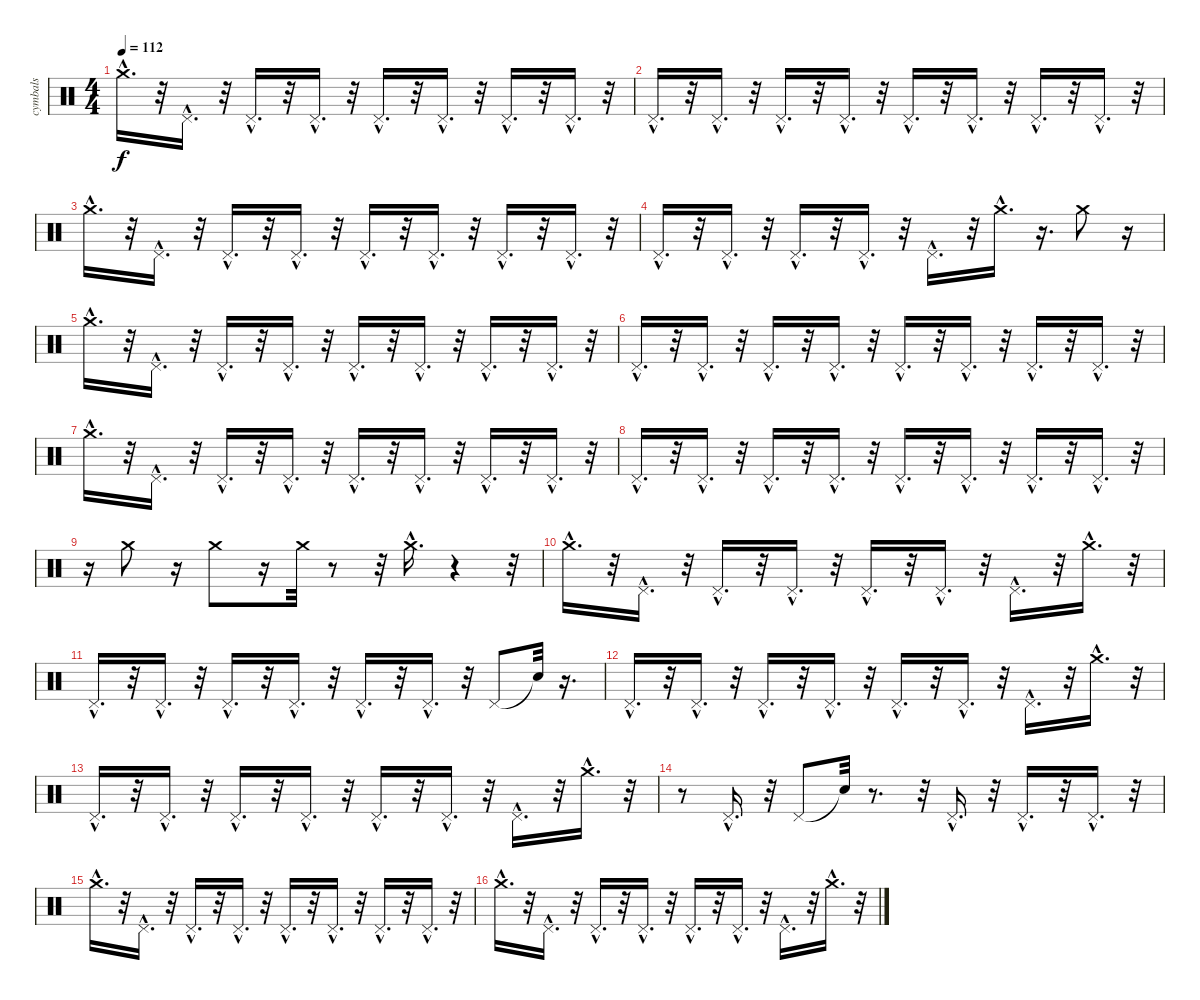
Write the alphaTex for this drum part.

\track ("cymbals" "cymbals") {instrument percussion}
\staff {score}
\articulation defaults
\ts (4 4)
\tempo 112
\clef neutral
\ks c "Crash medium (hit)"{hac}.16{d dy f}
r.32 "Pedal Hi-Hat (hit)"{hac}.16{d} r.32 "Pedal Hi-Hat (hit)"{hac}.16{d} r.32 "Pedal Hi-Hat (hit)"{hac}.16{d} r.32 "Pedal Hi-Hat (hit)"{hac}.16{d} r.32 "Pedal Hi-Hat (hit)"{hac}.16{d} r.32 "Pedal Hi-Hat (hit)"{hac}.16{d} r.32 "Pedal Hi-Hat (hit)"{hac}.16{d} r.32 |
"Pedal Hi-Hat (hit)"{hac}.16{d} r.32 "Pedal Hi-Hat (hit)"{hac}.16{d} r.32 "Pedal Hi-Hat (hit)"{hac}.16{d} r.32 "Pedal Hi-Hat (hit)"{hac}.16{d} r.32 "Pedal Hi-Hat (hit)"{hac}.16{d} r.32 "Pedal Hi-Hat (hit)"{hac}.16{d} r.32 "Pedal Hi-Hat (hit)"{hac}.16{d} r.32 "Pedal Hi-Hat (hit)"{hac}.16{d} r.32 |
"Crash medium (hit)"{hac}.16{d} r.32 "Pedal Hi-Hat (hit)"{hac}.16{d} r.32 "Pedal Hi-Hat (hit)"{hac}.16{d} r.32 "Pedal Hi-Hat (hit)"{hac}.16{d} r.32 "Pedal Hi-Hat (hit)"{hac}.16{d} r.32 "Pedal Hi-Hat (hit)"{hac}.16{d} r.32 "Pedal Hi-Hat (hit)"{hac}.16{d} r.32 "Pedal Hi-Hat (hit)"{hac}.16{d} r.32 |
"Pedal Hi-Hat (hit)"{hac}.16{d} r.32 "Pedal Hi-Hat (hit)"{hac}.16{d} r.32 "Pedal Hi-Hat (hit)"{hac}.16{d} r.32 "Pedal Hi-Hat (hit)"{hac}.16{d} r.32 "Pedal Hi-Hat (hit)"{hac}.16{d} r.32 "Crash medium (hit)"{hac}.16{d} r.16{d} "Crash medium (hit)".8 r.16 |
"Crash medium (hit)"{hac}.16{d} r.32 "Pedal Hi-Hat (hit)"{hac}.16{d} r.32 "Pedal Hi-Hat (hit)"{hac}.16{d} r.32 "Pedal Hi-Hat (hit)"{hac}.16{d} r.32 "Pedal Hi-Hat (hit)"{hac}.16{d} r.32 "Pedal Hi-Hat (hit)"{hac}.16{d} r.32 "Pedal Hi-Hat (hit)"{hac}.16{d} r.32 "Pedal Hi-Hat (hit)"{hac}.16{d} r.32 |
"Pedal Hi-Hat (hit)"{hac}.16{d} r.32 "Pedal Hi-Hat (hit)"{hac}.16{d} r.32 "Pedal Hi-Hat (hit)"{hac}.16{d} r.32 "Pedal Hi-Hat (hit)"{hac}.16{d} r.32 "Pedal Hi-Hat (hit)"{hac}.16{d} r.32 "Pedal Hi-Hat (hit)"{hac}.16{d} r.32 "Pedal Hi-Hat (hit)"{hac}.16{d} r.32 "Pedal Hi-Hat (hit)"{hac}.16{d} r.32 |
"Crash medium (hit)"{hac}.16{d} r.32 "Pedal Hi-Hat (hit)"{hac}.16{d} r.32 "Pedal Hi-Hat (hit)"{hac}.16{d} r.32 "Pedal Hi-Hat (hit)"{hac}.16{d} r.32 "Pedal Hi-Hat (hit)"{hac}.16{d} r.32 "Pedal Hi-Hat (hit)"{hac}.16{d} r.32 "Pedal Hi-Hat (hit)"{hac}.16{d} r.32 "Pedal Hi-Hat (hit)"{hac}.16{d} r.32 |
"Pedal Hi-Hat (hit)"{hac}.16{d} r.32 "Pedal Hi-Hat (hit)"{hac}.16{d} r.32 "Pedal Hi-Hat (hit)"{hac}.16{d} r.32 "Pedal Hi-Hat (hit)"{hac}.16{d} r.32 "Pedal Hi-Hat (hit)"{hac}.16{d} r.32 "Pedal Hi-Hat (hit)"{hac}.16{d} r.32 "Pedal Hi-Hat (hit)"{hac}.16{d} r.32 "Pedal Hi-Hat (hit)"{hac}.16{d} r.32 |
r.16 "Crash medium (hit)".8 r.16 "Crash medium (hit)".8 r.16 "Crash medium (hit)".32 r.8 r.32 "Crash medium (hit)"{hac}.16{d} r.4 r.32 |
"Crash medium (hit)"{hac}.16{d} r.32 "Pedal Hi-Hat (hit)"{hac}.16{d} r.32 "Pedal Hi-Hat (hit)"{hac}.16{d} r.32 "Pedal Hi-Hat (hit)"{hac}.16{d} r.32 "Pedal Hi-Hat (hit)"{hac}.16{d} r.32 "Pedal Hi-Hat (hit)"{hac}.16{d} r.32 "Pedal Hi-Hat (hit)"{hac}.16{d} r.32 "Crash medium (hit)"{hac}.16{d} r.32 |
"Pedal Hi-Hat (hit)"{hac}.16{d} r.32 "Pedal Hi-Hat (hit)"{hac}.16{d} r.32 "Pedal Hi-Hat (hit)"{hac}.16{d} r.32 "Pedal Hi-Hat (hit)"{hac}.16{d} r.32 "Pedal Hi-Hat (hit)"{hac}.16{d} r.32 "Pedal Hi-Hat (hit)"{hac}.16{d} r.32 "Pedal Hi-Hat (hit)".8 "Snare (hit)"{t}.32 r.16{d} |
"Pedal Hi-Hat (hit)"{hac}.16{d} r.32 "Pedal Hi-Hat (hit)"{hac}.16{d} r.32 "Pedal Hi-Hat (hit)"{hac}.16{d} r.32 "Pedal Hi-Hat (hit)"{hac}.16{d} r.32 "Pedal Hi-Hat (hit)"{hac}.16{d} r.32 "Pedal Hi-Hat (hit)"{hac}.16{d} r.32 "Pedal Hi-Hat (hit)"{hac}.16{d} r.32 "Crash medium (hit)"{hac}.16{d} r.32 |
"Pedal Hi-Hat (hit)"{hac}.16{d} r.32 "Pedal Hi-Hat (hit)"{hac}.16{d} r.32 "Pedal Hi-Hat (hit)"{hac}.16{d} r.32 "Pedal Hi-Hat (hit)"{hac}.16{d} r.32 "Pedal Hi-Hat (hit)"{hac}.16{d} r.32 "Pedal Hi-Hat (hit)"{hac}.16{d} r.32 "Pedal Hi-Hat (hit)"{hac}.16{d} r.32 "Crash medium (hit)"{hac}.16{d} r.32 |
r.8 "Pedal Hi-Hat (hit)"{hac}.16{d} r.32 "Pedal Hi-Hat (hit)".8 "Snare (hit)"{t}.32 r.8{d} r.32 "Pedal Hi-Hat (hit)"{hac}.16{d} r.32 "Pedal Hi-Hat (hit)"{hac}.16{d} r.32 "Pedal Hi-Hat (hit)"{hac}.16{d} r.32 |
"Crash medium (hit)"{hac}.16{d} r.32 "Pedal Hi-Hat (hit)"{hac}.16{d} r.32 "Pedal Hi-Hat (hit)"{hac}.16{d} r.32 "Pedal Hi-Hat (hit)"{hac}.16{d} r.32 "Pedal Hi-Hat (hit)"{hac}.16{d} r.32 "Pedal Hi-Hat (hit)"{hac}.16{d} r.32 "Pedal Hi-Hat (hit)"{hac}.16{d} r.32 "Pedal Hi-Hat (hit)"{hac}.16{d} r.32 |
"Crash medium (hit)"{hac}.16{d} r.32 "Pedal Hi-Hat (hit)"{hac}.16{d} r.32 "Pedal Hi-Hat (hit)"{hac}.16{d} r.32 "Pedal Hi-Hat (hit)"{hac}.16{d} r.32 "Pedal Hi-Hat (hit)"{hac}.16{d} r.32 "Pedal Hi-Hat (hit)"{hac}.16{d} r.32 "Pedal Hi-Hat (hit)"{hac}.16{d} r.32 "Crash medium (hit)"{hac}.16{d} r.32
